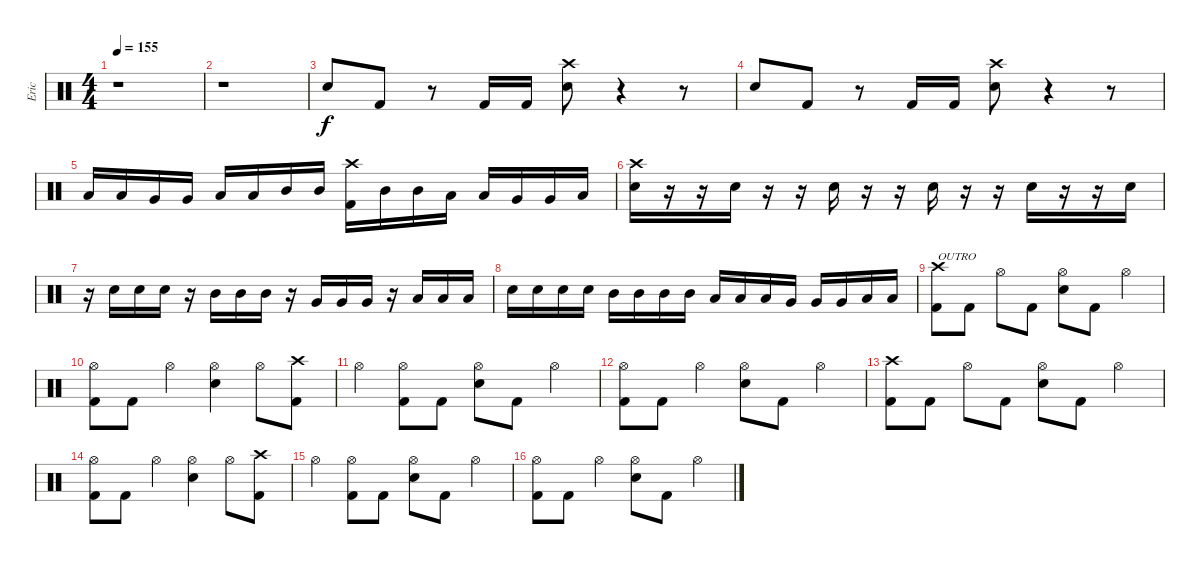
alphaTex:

\track ("Eric" "Eric") {instrument percussion}
\staff {score}
\articulation defaults
\ts (4 4)
\tempo 155
\clef neutral
\ks c
r.1{dy f} |
r.1 |
"Electric Snare (hit)".8 "Kick (hit) 2".8 r.8 "Kick (hit) 2".16 "Kick (hit) 2".16 ("Crash high (hit)" "Electric Snare (hit)").8 r.4 r.8 |
"Electric Snare (hit)".8 "Kick (hit) 2".8 r.8 "Kick (hit) 2".16 "Kick (hit) 2".16 ("Crash high (hit)" "Electric Snare (hit)").8 r.4 r.8 |
"Low Floor Tom (hit)".16 "Low Floor Tom (hit)".16 "Very Low Tom (hit)".16 "Very Low Tom (hit)".16 "Low Tom (hit)".16 "Low Tom (hit)".16 "Mid Tom (hit)".16 "Mid Tom (hit)".16 ("Crash high (hit)" "Kick (hit) 2").16 "Mid Tom (hit)".16 "Mid Tom (hit)".16 "Low Tom (hit)".16 "Low Tom (hit)".16 "Very Low Tom (hit)".16 "Very Low Tom (hit)".16 "Low Floor Tom (hit)".16 |
("Crash high (hit)" "Electric Snare (hit)").16 r.16 r.16 "Electric Snare (hit)".16 r.16 r.16 "Electric Snare (hit)".16 r.16 r.16 "Electric Snare (hit)".16 r.16 r.16 "Electric Snare (hit)".16 r.16 r.16 "Electric Snare (hit)".16 |
r.16 "Electric Snare (hit)".16 "Electric Snare (hit)".16 "Electric Snare (hit)".16 r.16 "Mid Tom (hit)".16 "Mid Tom (hit)".16 "Mid Tom (hit)".16 r.16 "Very Low Tom (hit)".16 "Very Low Tom (hit)".16 "Very Low Tom (hit)".16 r.16 "Low Floor Tom (hit)".16 "Low Floor Tom (hit)".16 "Low Floor Tom (hit)".16 |
"Electric Snare (hit)".16 "Electric Snare (hit)".16 "Electric Snare (hit)".16 "Electric Snare (hit)".16 "Mid Tom (hit)".16 "Mid Tom (hit)".16 "Mid Tom (hit)".16 "Mid Tom (hit)".16 "Low Tom (hit)".16 "Low Tom (hit)".16 "Low Tom (hit)".16 "Very Low Tom (hit)".16 "Very Low Tom (hit)".16 "Very Low Tom (hit)".16 "Low Floor Tom (hit)".16 "Low Floor Tom (hit)".16 |
("Crash high (hit)" "Kick (hit) 2").8{txt "OUTRO"} "Kick (hit) 2".8 "Hi-Hat (open)".8 "Kick (hit) 2".8 ("Hi-Hat (open)" "Electric Snare (hit)").8 "Kick (hit) 2".8 "Hi-Hat (open)".4 |
("Hi-Hat (open)" "Kick (hit) 2").8 "Kick (hit) 2".8 "Hi-Hat (open)".4 ("Hi-Hat (open)" "Electric Snare (hit)").4 "Hi-Hat (open)".8 ("Crash high (hit)" "Kick (hit) 2").8 |
"Hi-Hat (open)".4 ("Hi-Hat (open)" "Kick (hit) 2").8 "Kick (hit) 2".8 ("Hi-Hat (open)" "Electric Snare (hit)").8 "Kick (hit) 2".8 "Hi-Hat (open)".4 |
("Hi-Hat (open)" "Kick (hit) 2").8 "Kick (hit) 2".8 "Hi-Hat (open)".4 ("Hi-Hat (open)" "Electric Snare (hit)").8 "Kick (hit) 2".8 "Hi-Hat (open)".4 |
("Crash high (hit)" "Kick (hit) 2").8 "Kick (hit) 2".8 "Hi-Hat (open)".8 "Kick (hit) 2".8 ("Hi-Hat (open)" "Electric Snare (hit)").8 "Kick (hit) 2".8 "Hi-Hat (open)".4 |
("Hi-Hat (open)" "Kick (hit) 2").8 "Kick (hit) 2".8 "Hi-Hat (open)".4 ("Hi-Hat (open)" "Electric Snare (hit)").4 "Hi-Hat (open)".8 ("Crash high (hit)" "Kick (hit) 2").8 |
"Hi-Hat (open)".4 ("Hi-Hat (open)" "Kick (hit) 2").8 "Kick (hit) 2".8 ("Hi-Hat (open)" "Electric Snare (hit)").8 "Kick (hit) 2".8 "Hi-Hat (open)".4 |
("Hi-Hat (open)" "Kick (hit) 2").8 "Kick (hit) 2".8 "Hi-Hat (open)".4 ("Hi-Hat (open)" "Electric Snare (hit)").8 "Kick (hit) 2".8 "Hi-Hat (open)".4
